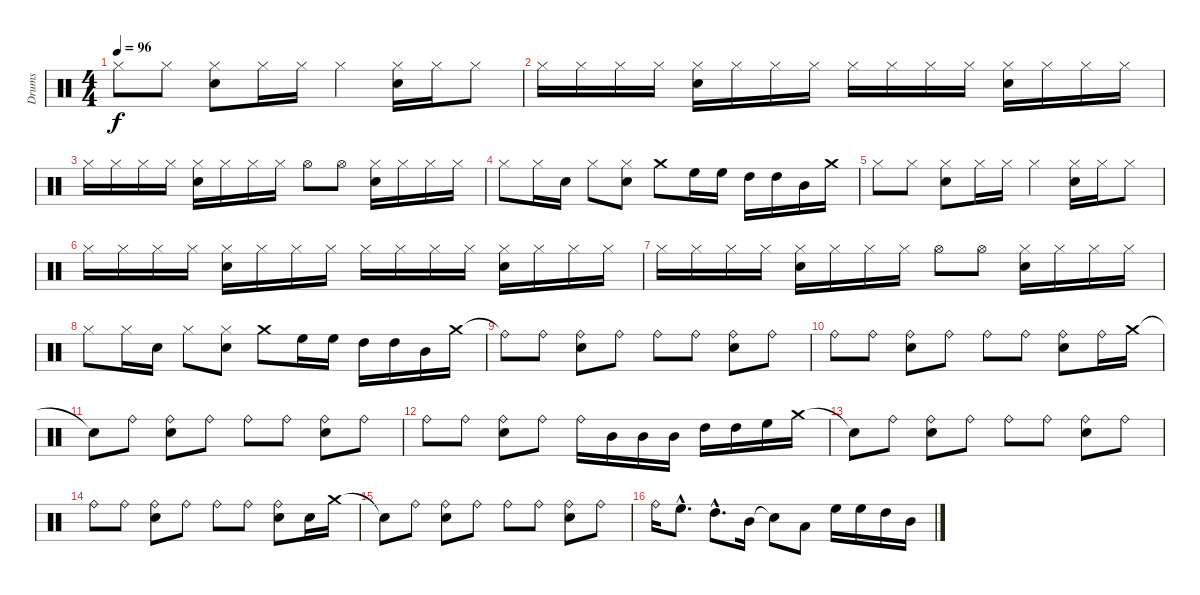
\track ("Drums" "Drums") {instrument percussion}
\staff {score}
\articulation defaults
\ts (4 4)
\tempo 96
\clef neutral
\ks c "Hi-Hat (closed)".8{dy f} "Hi-Hat (closed)".8
("Hi-Hat (closed)" "Electric Snare (hit)").8 "Hi-Hat (closed)".16 "Hi-Hat (closed)".16 "Hi-Hat (closed)".4 ("Hi-Hat (closed)" "Electric Snare (hit)").16 "Hi-Hat (closed)".16 "Hi-Hat (closed)".8 |
"Hi-Hat (closed)".16 "Hi-Hat (closed)".16 "Hi-Hat (closed)".16 "Hi-Hat (closed)".16 ("Hi-Hat (closed)" "Electric Snare (hit)").16 "Hi-Hat (closed)".16 "Hi-Hat (closed)".16 "Hi-Hat (closed)".16 "Hi-Hat (closed)".16 "Hi-Hat (closed)".16 "Hi-Hat (closed)".16 "Hi-Hat (closed)".16 ("Hi-Hat (closed)" "Electric Snare (hit)").16 "Hi-Hat (closed)".16 "Hi-Hat (closed)".16 "Hi-Hat (closed)".16 |
"Hi-Hat (closed)".16 "Hi-Hat (closed)".16 "Hi-Hat (closed)".16 "Hi-Hat (closed)".16 ("Hi-Hat (closed)" "Electric Snare (hit)").16 "Hi-Hat (closed)".16 "Hi-Hat (closed)".16 "Hi-Hat (closed)".16 "Hi-Hat (open)".8 "Hi-Hat (open)".8 ("Hi-Hat (closed)" "Electric Snare (hit)").16 "Hi-Hat (closed)".16 "Hi-Hat (closed)".16 "Hi-Hat (closed)".16 |
"Hi-Hat (closed)".8 "Hi-Hat (closed)".16 "Electric Snare (hit)".16 "Hi-Hat (closed)".8 ("Hi-Hat (closed)" "Electric Snare (hit)").8 "Crash medium (hit)".8 "High Floor Tom (hit)".16 "High Floor Tom (hit)".16 "High Tom (hit)".16 "High Tom (hit)".16 "Mid Tom (hit)".16 "Crash medium (hit)".16 |
"Hi-Hat (closed)".8 "Hi-Hat (closed)".8 ("Hi-Hat (closed)" "Electric Snare (hit)").8 "Hi-Hat (closed)".16 "Hi-Hat (closed)".16 "Hi-Hat (closed)".4 ("Hi-Hat (closed)" "Electric Snare (hit)").16 "Hi-Hat (closed)".16 "Hi-Hat (closed)".8 |
"Hi-Hat (closed)".16 "Hi-Hat (closed)".16 "Hi-Hat (closed)".16 "Hi-Hat (closed)".16 ("Hi-Hat (closed)" "Electric Snare (hit)").16 "Hi-Hat (closed)".16 "Hi-Hat (closed)".16 "Hi-Hat (closed)".16 "Hi-Hat (closed)".16 "Hi-Hat (closed)".16 "Hi-Hat (closed)".16 "Hi-Hat (closed)".16 ("Hi-Hat (closed)" "Electric Snare (hit)").16 "Hi-Hat (closed)".16 "Hi-Hat (closed)".16 "Hi-Hat (closed)".16 |
"Hi-Hat (closed)".16 "Hi-Hat (closed)".16 "Hi-Hat (closed)".16 "Hi-Hat (closed)".16 ("Hi-Hat (closed)" "Electric Snare (hit)").16 "Hi-Hat (closed)".16 "Hi-Hat (closed)".16 "Hi-Hat (closed)".16 "Hi-Hat (open)".8 "Hi-Hat (open)".8 ("Hi-Hat (closed)" "Electric Snare (hit)").16 "Hi-Hat (closed)".16 "Hi-Hat (closed)".16 "Hi-Hat (closed)".16 |
"Hi-Hat (closed)".8 "Hi-Hat (closed)".16 "Electric Snare (hit)".16 "Hi-Hat (closed)".8 ("Hi-Hat (closed)" "Electric Snare (hit)").8 "Crash medium (hit)".8 "High Floor Tom (hit)".16 "High Floor Tom (hit)".16 "High Tom (hit)".16 "High Tom (hit)".16 "Mid Tom (hit)".16 "Crash medium (hit)".16 |
"Ride (bell)"{t}.8 "Ride (bell)".8 ("Ride (bell)" "Electric Snare (hit)").8 "Ride (bell)".8 "Ride (bell)".8 "Ride (bell)".8 ("Ride (bell)" "Electric Snare (hit)").8 "Ride (bell)".8 |
"Ride (bell)".8 "Ride (bell)".8 ("Ride (bell)" "Electric Snare (hit)").8 "Ride (bell)".8 "Ride (bell)".8 "Ride (bell)".8 ("Ride (bell)" "Electric Snare (hit)").8 "Ride (bell)".16 "Crash medium (hit)".16 |
"Snare (hit)"{t}.8 "Ride (bell)".8 ("Ride (bell)" "Electric Snare (hit)").8 "Ride (bell)".8 "Ride (bell)".8 "Ride (bell)".8 ("Ride (bell)" "Electric Snare (hit)").8 "Ride (bell)".8 |
"Ride (bell)".8 "Ride (bell)".8 ("Ride (bell)" "Electric Snare (hit)").8 "Ride (bell)".8 "Ride (bell)".16 "Mid Tom (hit)".16 "Mid Tom (hit)".16 "Mid Tom (hit)".16 "High Tom (hit)".16 "High Tom (hit)".16 "High Floor Tom (hit)".16 "Crash medium (hit)".16 |
"Snare (hit)"{t}.8 "Ride (bell)".8 ("Ride (bell)" "Electric Snare (hit)").8 "Ride (bell)".8 "Ride (bell)".8 "Ride (bell)".8 ("Ride (bell)" "Electric Snare (hit)").8 "Ride (bell)".8 |
"Ride (bell)".8 "Ride (bell)".8 ("Ride (bell)" "Electric Snare (hit)").8 "Ride (bell)".8 "Ride (bell)".8 "Ride (bell)".8 ("Ride (bell)" "Electric Snare (hit)").8 "Electric Snare (hit)".16 "Crash medium (hit)".16 |
"Snare (hit)"{t}.8 "Ride (bell)".8 ("Ride (bell)" "Electric Snare (hit)").8 "Ride (bell)".8 "Ride (bell)".8 "Ride (bell)".8 ("Ride (bell)" "Electric Snare (hit)").8 "Ride (bell)".8 |
"Ride (bell)".16 "High Floor Tom (hit)"{hac}.8{d} "High Tom (hit)"{hac}.8{d} "Mid Tom (hit)".16 "Snare (hit)"{t}.8 "Low Tom (hit)".8 "High Floor Tom (hit)".16 "High Floor Tom (hit)".16 "High Tom (hit)".16 "Mid Tom (hit)".16
